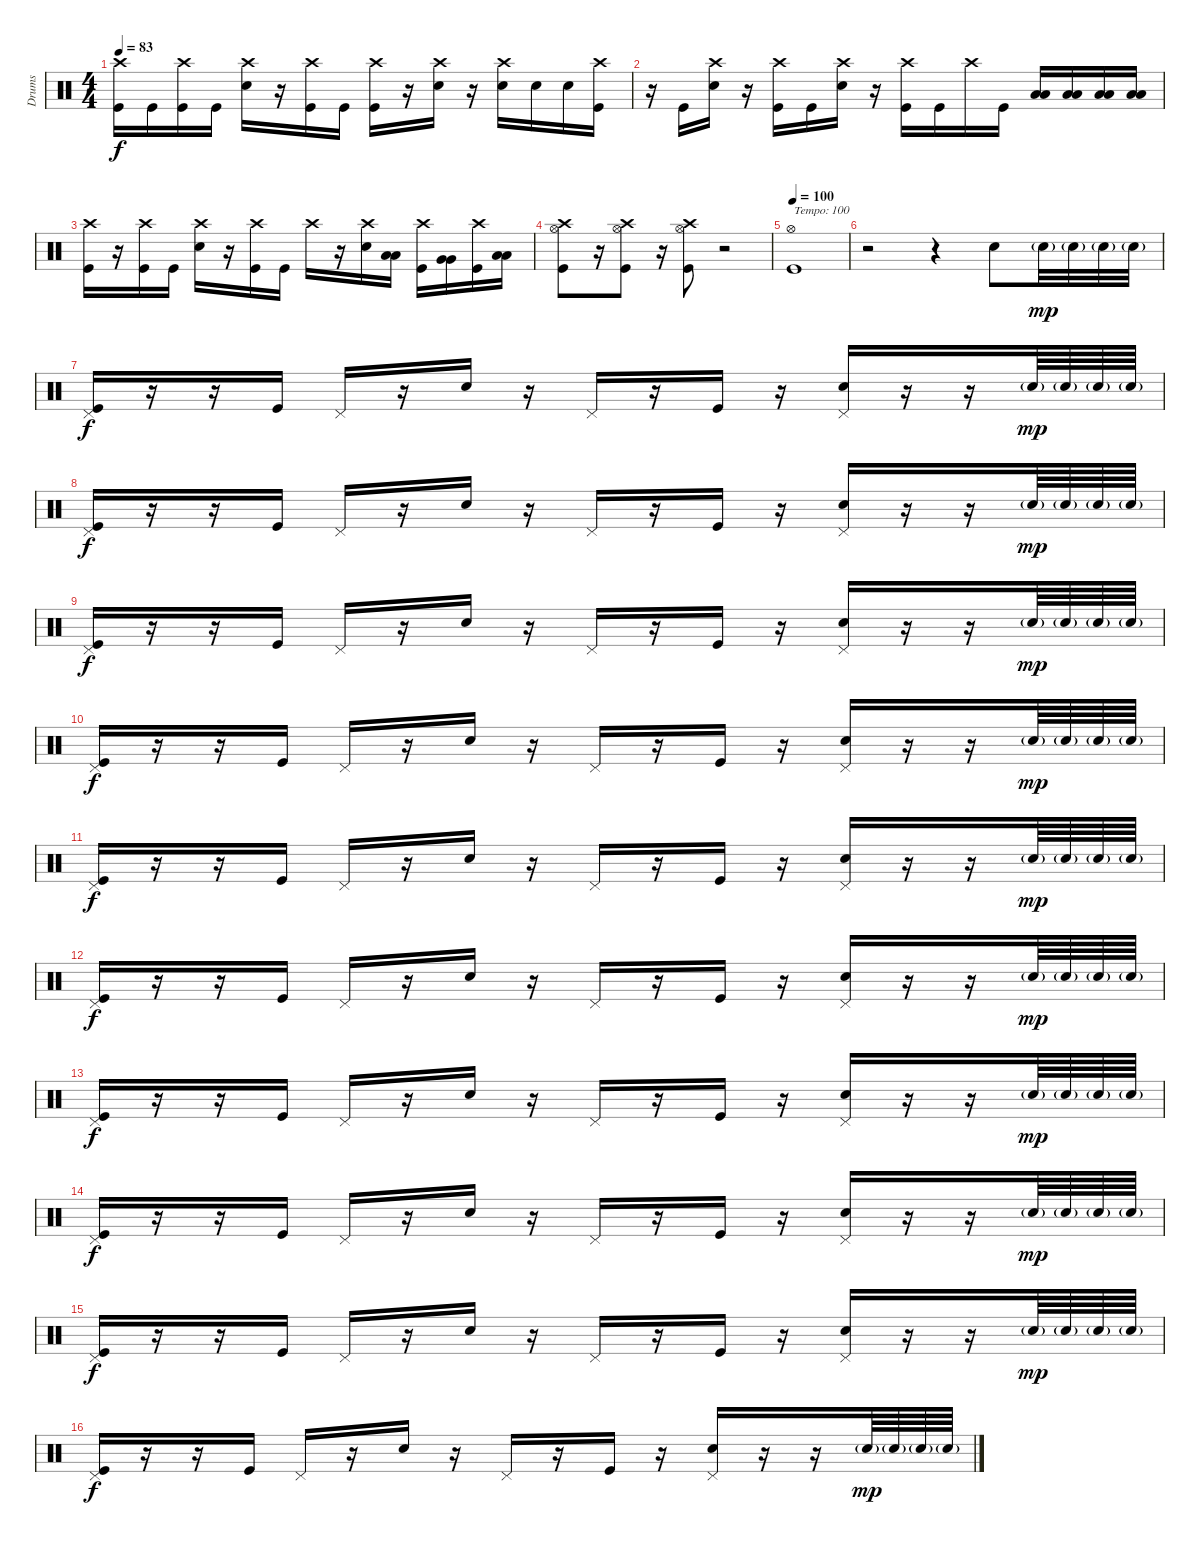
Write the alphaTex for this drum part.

\track ("Drums" "Drums") {instrument percussion}
\staff {score}
\articulation defaults
\ts (4 4)
\tempo 83
\clef neutral
\ks c
("Crash high (hit)" "Kick (hit)").16{dy f} "Kick (hit)".16 ("Crash high (hit)" "Kick (hit)").16 "Kick (hit)".16 ("Crash high (hit)" "Snare (hit) 2").16 r.16 ("Crash high (hit)" "Kick (hit)").16 "Kick (hit)".16 ("Crash high (hit)" "Kick (hit)").16 r.16 ("Crash high (hit)" "Snare (hit) 2").16 r.16 ("Crash high (hit)" "Snare (hit) 2").16 "Snare (hit) 2".16 "Snare (hit) 2".16 ("Crash high (hit)" "Kick (hit)").16 |
r.16 "Kick (hit)".16 ("Crash high (hit)" "Snare (hit) 2").16 r.16 ("Crash high (hit)" "Kick (hit)").16 "Kick (hit)".16 ("Crash high (hit)" "Snare (hit) 2").16 r.16 ("Crash high (hit)" "Kick (hit)").16 "Kick (hit)".16 "Crash high (hit)".16 "Kick (hit)".16 ("Low Tom (hit)" "Low Tom (hit)").16 ("Low Tom (hit)" "Low Tom (hit)").16 ("Low Tom (hit)" "Low Tom (hit)").16 ("Low Tom (hit)" "Low Tom (hit)").16 |
("Crash high (hit)" "Kick (hit)").16 r.16 ("Crash high (hit)" "Kick (hit)").16 "Kick (hit)".16 ("Crash high (hit)" "Snare (hit) 2").16 r.16 ("Crash high (hit)" "Kick (hit)").16 "Kick (hit)".16 "Crash high (hit)".16 r.16 ("Crash high (hit)" "Snare (hit) 2").16 ("Low Tom (hit)" "Low Tom (hit)").16 ("Crash high (hit)" "Kick (hit)").16 ("Very Low Tom (hit)" "Very Low Tom (hit)").16 ("Crash high (hit)" "Kick (hit)").16 ("Low Floor Tom (hit)" "Low Floor Tom (hit)").16 |
("Crash high (hit)" "Hi-Hat (open)" "Kick (hit)").8 r.16 ("Crash high (hit)" "Hi-Hat (open)" "Kick (hit)").8 r.16 ("Crash high (hit)" "Hi-Hat (open)" "Kick (hit)").8 r.2 |
\tempo 100
("Hi-Hat (open)" "Kick (hit)").1{txt "Tempo: 100"} |
r.2 r.4 "Snare (hit) 2".8 "Snare (hit) 2"{g}.32{dy mp} "Snare (hit) 2"{g}.32 "Snare (hit) 2"{g}.32 "Snare (hit) 2"{g}.32 |
("Pedal Hi-Hat (hit)" "Kick (hit)").16{dy f} r.16 r.16 "Kick (hit)".16 "Pedal Hi-Hat (hit)".16 r.16 "Snare (hit) 2".16 r.16 "Pedal Hi-Hat (hit)".16 r.16 "Kick (hit)".16 r.16 ("Pedal Hi-Hat (hit)" "Snare (hit) 2").16 r.16 r.16 "Snare (hit) 2"{g}.64{dy mp} "Snare (hit) 2"{g}.64 "Snare (hit) 2"{g}.64 "Snare (hit) 2"{g}.64 |
("Pedal Hi-Hat (hit)" "Kick (hit)").16{dy f} r.16 r.16 "Kick (hit)".16 "Pedal Hi-Hat (hit)".16 r.16 "Snare (hit) 2".16 r.16 "Pedal Hi-Hat (hit)".16 r.16 "Kick (hit)".16 r.16 ("Pedal Hi-Hat (hit)" "Snare (hit) 2").16 r.16 r.16 "Snare (hit) 2"{g}.64{dy mp} "Snare (hit) 2"{g}.64 "Snare (hit) 2"{g}.64 "Snare (hit) 2"{g}.64 |
("Pedal Hi-Hat (hit)" "Kick (hit)").16{dy f} r.16 r.16 "Kick (hit)".16 "Pedal Hi-Hat (hit)".16 r.16 "Snare (hit) 2".16 r.16 "Pedal Hi-Hat (hit)".16 r.16 "Kick (hit)".16 r.16 ("Pedal Hi-Hat (hit)" "Snare (hit) 2").16 r.16 r.16 "Snare (hit) 2"{g}.64{dy mp} "Snare (hit) 2"{g}.64 "Snare (hit) 2"{g}.64 "Snare (hit) 2"{g}.64 |
("Pedal Hi-Hat (hit)" "Kick (hit)").16{dy f} r.16 r.16 "Kick (hit)".16 "Pedal Hi-Hat (hit)".16 r.16 "Snare (hit) 2".16 r.16 "Pedal Hi-Hat (hit)".16 r.16 "Kick (hit)".16 r.16 ("Pedal Hi-Hat (hit)" "Snare (hit) 2").16 r.16 r.16 "Snare (hit) 2"{g}.64{dy mp} "Snare (hit) 2"{g}.64 "Snare (hit) 2"{g}.64 "Snare (hit) 2"{g}.64 |
("Pedal Hi-Hat (hit)" "Kick (hit)").16{dy f} r.16 r.16 "Kick (hit)".16 "Pedal Hi-Hat (hit)".16 r.16 "Snare (hit) 2".16 r.16 "Pedal Hi-Hat (hit)".16 r.16 "Kick (hit)".16 r.16 ("Pedal Hi-Hat (hit)" "Snare (hit) 2").16 r.16 r.16 "Snare (hit) 2"{g}.64{dy mp} "Snare (hit) 2"{g}.64 "Snare (hit) 2"{g}.64 "Snare (hit) 2"{g}.64 |
("Pedal Hi-Hat (hit)" "Kick (hit)").16{dy f} r.16 r.16 "Kick (hit)".16 "Pedal Hi-Hat (hit)".16 r.16 "Snare (hit) 2".16 r.16 "Pedal Hi-Hat (hit)".16 r.16 "Kick (hit)".16 r.16 ("Pedal Hi-Hat (hit)" "Snare (hit) 2").16 r.16 r.16 "Snare (hit) 2"{g}.64{dy mp} "Snare (hit) 2"{g}.64 "Snare (hit) 2"{g}.64 "Snare (hit) 2"{g}.64 |
("Pedal Hi-Hat (hit)" "Kick (hit)").16{dy f} r.16 r.16 "Kick (hit)".16 "Pedal Hi-Hat (hit)".16 r.16 "Snare (hit) 2".16 r.16 "Pedal Hi-Hat (hit)".16 r.16 "Kick (hit)".16 r.16 ("Pedal Hi-Hat (hit)" "Snare (hit) 2").16 r.16 r.16 "Snare (hit) 2"{g}.64{dy mp} "Snare (hit) 2"{g}.64 "Snare (hit) 2"{g}.64 "Snare (hit) 2"{g}.64 |
("Pedal Hi-Hat (hit)" "Kick (hit)").16{dy f} r.16 r.16 "Kick (hit)".16 "Pedal Hi-Hat (hit)".16 r.16 "Snare (hit) 2".16 r.16 "Pedal Hi-Hat (hit)".16 r.16 "Kick (hit)".16 r.16 ("Pedal Hi-Hat (hit)" "Snare (hit) 2").16 r.16 r.16 "Snare (hit) 2"{g}.64{dy mp} "Snare (hit) 2"{g}.64 "Snare (hit) 2"{g}.64 "Snare (hit) 2"{g}.64 |
("Pedal Hi-Hat (hit)" "Kick (hit)").16{dy f} r.16 r.16 "Kick (hit)".16 "Pedal Hi-Hat (hit)".16 r.16 "Snare (hit) 2".16 r.16 "Pedal Hi-Hat (hit)".16 r.16 "Kick (hit)".16 r.16 ("Pedal Hi-Hat (hit)" "Snare (hit) 2").16 r.16 r.16 "Snare (hit) 2"{g}.64{dy mp} "Snare (hit) 2"{g}.64 "Snare (hit) 2"{g}.64 "Snare (hit) 2"{g}.64 |
("Pedal Hi-Hat (hit)" "Kick (hit)").16{dy f} r.16 r.16 "Kick (hit)".16 "Pedal Hi-Hat (hit)".16 r.16 "Snare (hit) 2".16 r.16 "Pedal Hi-Hat (hit)".16 r.16 "Kick (hit)".16 r.16 ("Pedal Hi-Hat (hit)" "Snare (hit) 2").16 r.16 r.16 "Snare (hit) 2"{g}.64{dy mp} "Snare (hit) 2"{g}.64 "Snare (hit) 2"{g}.64 "Snare (hit) 2"{g}.64
